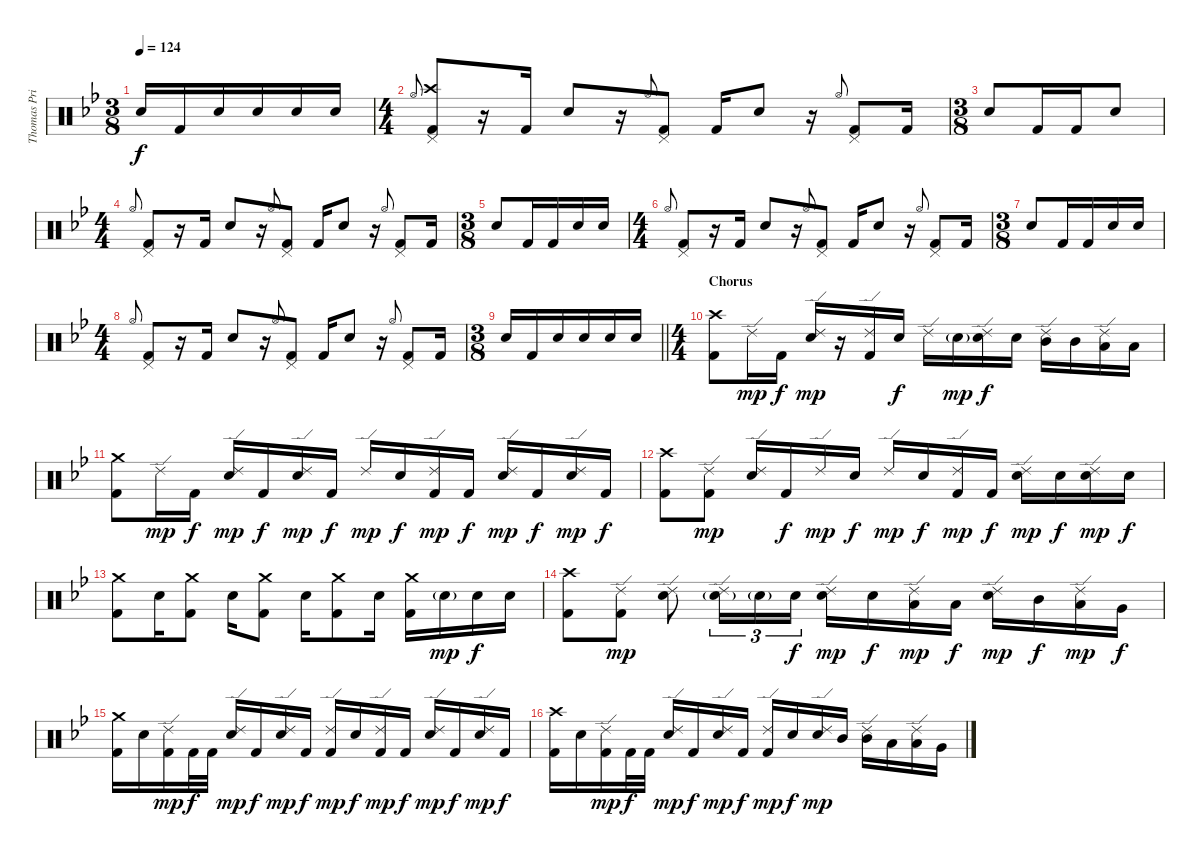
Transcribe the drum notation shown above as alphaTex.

\track ("Thomas Pridgen" "Thomas Pri") {instrument percussion}
\staff {score}
\articulation defaults
\ts (3 8)
\tempo 124
\clef neutral
\ks gminor "Electric Snare (hit)".16{dy f} "Kick (hit) 2".16 "Electric Snare (hit)".16 "Electric Snare (hit)".16 "Electric Snare (hit)".16 "Electric Snare (hit)".16
|
\ts (4 4)
"Hi-Hat (open)".8{gr onbeat} ("Crash high (hit)" "Pedal Hi-Hat (hit)" "Kick (hit) 2").8 r.16 "Kick (hit) 2".16 "Electric Snare (hit)".8 r.16 "Hi-Hat (open)".8{gr onbeat} ("Pedal Hi-Hat (hit)" "Kick (hit) 2").8 "Kick (hit) 2".16 "Electric Snare (hit)".8 r.16 "Hi-Hat (open)".8{gr onbeat} ("Pedal Hi-Hat (hit)" "Kick (hit) 2").8 "Kick (hit) 2".16 |
\ts (3 8)
"Electric Snare (hit)".8 "Kick (hit) 2".16 "Kick (hit) 2".16 "Electric Snare (hit)".8 |
\ts (4 4)
"Hi-Hat (open)".8{gr onbeat} ("Pedal Hi-Hat (hit)" "Kick (hit) 2").8 r.16 "Kick (hit) 2".16 "Electric Snare (hit)".8 r.16 "Hi-Hat (open)".8{gr onbeat} ("Pedal Hi-Hat (hit)" "Kick (hit) 2").8 "Kick (hit) 2".16 "Electric Snare (hit)".8 r.16 "Hi-Hat (open)".8{gr onbeat} ("Pedal Hi-Hat (hit)" "Kick (hit) 2").8 "Kick (hit) 2".16 |
\ts (3 8)
"Electric Snare (hit)".8 "Kick (hit) 2".16 "Kick (hit) 2".16 "Electric Snare (hit)".16 "Electric Snare (hit)".16 |
\ts (4 4)
"Hi-Hat (open)".8{gr onbeat} ("Pedal Hi-Hat (hit)" "Kick (hit) 2").8 r.16 "Kick (hit) 2".16 "Electric Snare (hit)".8 r.16 "Hi-Hat (open)".8{gr onbeat} ("Pedal Hi-Hat (hit)" "Kick (hit) 2").8 "Kick (hit) 2".16 "Electric Snare (hit)".8 r.16 "Hi-Hat (open)".8{gr onbeat} ("Pedal Hi-Hat (hit)" "Kick (hit) 2").8 "Kick (hit) 2".16 |
\ts (3 8)
"Electric Snare (hit)".8 "Kick (hit) 2".16 "Kick (hit) 2".16 "Electric Snare (hit)".16 "Electric Snare (hit)".16 |
\ts (4 4)
"Hi-Hat (open)".8{gr onbeat} ("Pedal Hi-Hat (hit)" "Kick (hit) 2").8 r.16 "Kick (hit) 2".16 "Electric Snare (hit)".8 r.16 "Hi-Hat (open)".8{gr onbeat} ("Pedal Hi-Hat (hit)" "Kick (hit) 2").8 "Kick (hit) 2".16 "Electric Snare (hit)".8 r.16 "Hi-Hat (open)".8{gr onbeat} ("Pedal Hi-Hat (hit)" "Kick (hit) 2").8 "Kick (hit) 2".16 |
\ts (3 8)
\barLineRight lightlight "Electric Snare (hit)".16 "Kick (hit) 2".16 "Electric Snare (hit)".16 "Electric Snare (hit)".16 "Electric Snare (hit)".16 "Electric Snare (hit)".16
|
\ts (4 4)
\section ("" "Chorus")
("Crash high (hit)" "Kick (hit) 2").8 "Ride (edge) 2".16{dy mp} "Kick (hit) 2".16{dy f} ("Ride (edge) 2" "Electric Snare (hit)").16{dy mp} r.16 ("Ride (edge) 2" "Kick (hit) 2").16 "Electric Snare (hit)".16{dy f} "Ride (edge) 2".16 "Electric Snare (hit)"{g}.16{dy mp} ("Ride (edge) 2" "Electric Snare (hit)").16{dy f} "Electric Snare (hit)".16 ("Ride (edge) 2" "Mid Tom (hit)").16 "Mid Tom (hit)".16 ("Ride (edge) 2" "Low Tom (hit)").16 "Low Tom (hit)".16 |
("Crash medium (hit)" "Kick (hit) 2").8 "Ride (edge) 2".16{dy mp} "Kick (hit) 2".16{dy f} ("Ride (edge) 2" "Electric Snare (hit)").16{dy mp} "Kick (hit) 2".16{dy f} ("Ride (edge) 2" "Electric Snare (hit)").16{dy mp} "Kick (hit) 2".16{dy f} "Ride (edge) 2".16{dy mp} "Electric Snare (hit)".16{dy f} ("Ride (edge) 2" "Kick (hit) 2").16{dy mp} "Kick (hit) 2".16{dy f} ("Ride (edge) 2" "Electric Snare (hit)").16{dy mp} "Kick (hit) 2".16{dy f} ("Ride (edge) 2" "Electric Snare (hit)").16{dy mp} "Kick (hit) 2".16{dy f} |
("Crash high (hit)" "Kick (hit) 2").8 ("Ride (edge) 2" "Kick (hit) 2").8{dy mp} ("Ride (edge) 2" "Electric Snare (hit)").16 "Kick (hit) 2".16{dy f} "Ride (edge) 2".16{dy mp} "Electric Snare (hit)".16{dy f} "Ride (edge) 2".16{dy mp} "Electric Snare (hit)".16{dy f} ("Ride (edge) 2" "Kick (hit) 2").16{dy mp} "Kick (hit) 2".16{dy f} ("Ride (edge) 2" "Electric Snare (hit)").16{dy mp} "Electric Snare (hit)".16{dy f} ("Ride (edge) 2" "Electric Snare (hit)").16{dy mp} "Electric Snare (hit)".16{dy f} |
("Crash medium (hit)" "Kick (hit) 2").8 "Electric Snare (hit)".16 ("Crash medium (hit)" "Kick (hit) 2").8 "Electric Snare (hit)".16 ("Crash medium (hit)" "Kick (hit) 2").8 "Electric Snare (hit)".16 ("Crash medium (hit)" "Kick (hit) 2").8 "Electric Snare (hit)".16 ("Crash medium (hit)" "Kick (hit) 2").16 "Electric Snare (hit)"{g}.16{dy mp} "Electric Snare (hit)".16{dy f} "Electric Snare (hit)".16 |
("Crash high (hit)" "Kick (hit) 2").8 ("Ride (edge) 2" "Kick (hit) 2").8{dy mp} ("Ride (edge) 2" "Electric Snare (hit)").8 ("Ride (edge) 2" "Electric Snare (hit)"{g}).16{tu (3 2)} "Electric Snare (hit)"{g}.16{tu (3 2)} "Electric Snare (hit)".16{tu (3 2) dy f} ("Ride (edge) 2" "Electric Snare (hit)").16{dy mp} "Electric Snare (hit)".16{dy f} ("Ride (edge) 2" "Low Tom (hit)").16{dy mp} "Low Tom (hit)".16{dy f} ("Ride (edge) 2" "Electric Snare (hit)").16{dy mp} "Mid Tom (hit)".16{dy f} ("Ride (edge) 2" "Low Tom (hit)").16{dy mp} "Very Low Tom (hit)".16{dy f} |
("Crash medium (hit)" "Kick (hit) 2").16 "Electric Snare (hit)".16 ("Ride (edge) 2" "Kick (hit) 2").16{dy mp} "Kick (hit) 2".32{dy f} "Kick (hit) 2".32 ("Ride (edge) 2" "Electric Snare (hit)").16{dy mp} "Kick (hit) 2".16{dy f} ("Ride (edge) 2" "Electric Snare (hit)").16{dy mp} "Kick (hit) 2".16{dy f} ("Ride (edge) 2" "Kick (hit) 2").16{dy mp} "Electric Snare (hit)".16{dy f} ("Ride (edge) 2" "Kick (hit) 2").16{dy mp} "Kick (hit) 2".16{dy f} ("Ride (edge) 2" "Electric Snare (hit)").16{dy mp} "Kick (hit) 2".16{dy f} ("Ride (edge) 2" "Electric Snare (hit)").16{dy mp} "Kick (hit) 2".16{dy f} |
("Crash high (hit)" "Kick (hit) 2").16 "Electric Snare (hit)".16 ("Ride (edge) 2" "Kick (hit) 2").16{dy mp} "Kick (hit) 2".32{dy f} "Kick (hit) 2".32 ("Ride (edge) 2" "Electric Snare (hit)").16{dy mp} "Kick (hit) 2".16{dy f} ("Ride (edge) 2" "Electric Snare (hit)").16{dy mp} "Kick (hit) 2".16{dy f} ("Ride (edge) 2" "Kick (hit) 2").16{dy mp} "Electric Snare (hit)".16{dy f} ("Ride (edge) 2" "Electric Snare (hit)").16{dy mp} "Mid Tom (hit)".16 ("Ride (edge) 2" "Mid Tom (hit)").16 "Low Tom (hit)".16 ("Ride (edge) 2" "Low Tom (hit)").16 "Very Low Tom (hit)".16
